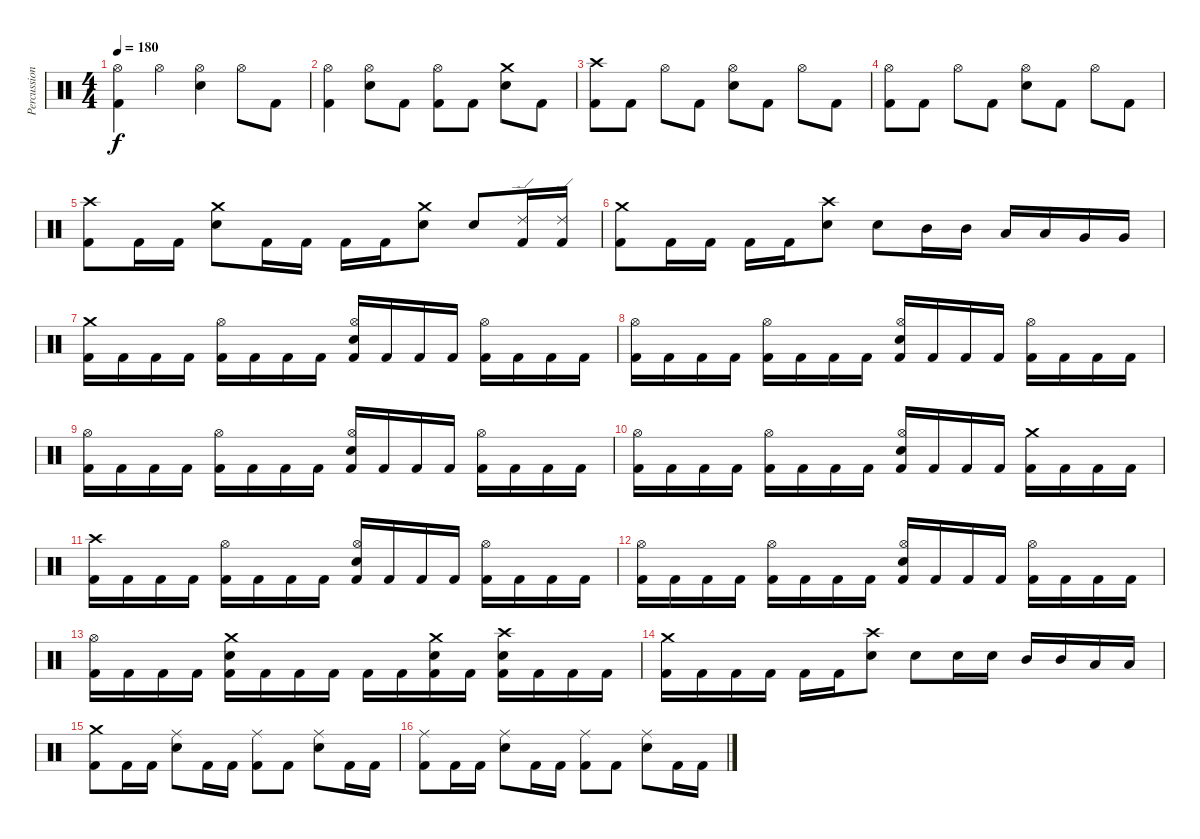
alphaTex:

\track ("Percussion" "Percussion") {instrument percussion}
\staff {score}
\articulation defaults
\ts (4 4)
\tempo 180
\clef neutral
\ks c
("Kick (hit) 2" "Hi-Hat (open)").4{dy f} "Hi-Hat (open)".4 ("Electric Snare (hit)" "Hi-Hat (open)").4 "Hi-Hat (open)".8 "Kick (hit) 2".8 |
("Kick (hit) 2" "Hi-Hat (open)").4 ("Electric Snare (hit)" "Hi-Hat (open)").8 "Kick (hit) 2".8 ("Kick (hit) 2" "Hi-Hat (open)").8 "Kick (hit) 2".8 ("Electric Snare (hit)" "Crash medium (hit)").8 "Kick (hit) 2".8 |
("Kick (hit) 2" "Crash high (hit)").8 "Kick (hit) 2".8 "Hi-Hat (open)".8 "Kick (hit) 2".8 ("Electric Snare (hit)" "Hi-Hat (open)").8 "Kick (hit) 2".8 "Hi-Hat (open)".8 "Kick (hit) 2".8 |
("Kick (hit) 2" "Hi-Hat (open)").8 "Kick (hit) 2".8 "Hi-Hat (open)".8 "Kick (hit) 2".8 ("Electric Snare (hit)" "Hi-Hat (open)").8 "Kick (hit) 2".8 "Hi-Hat (open)".8 "Kick (hit) 2".8 |
("Kick (hit) 2" "Crash high (hit)").8 "Kick (hit) 2".16 "Kick (hit) 2".16 ("Electric Snare (hit)" "Crash medium (hit)").8 "Kick (hit) 2".16 "Kick (hit) 2".16 "Kick (hit) 2".16 "Kick (hit) 2".16 ("Electric Snare (hit)" "Crash medium (hit)").8 "Electric Snare (hit)".8 ("Kick (hit) 2" "Ride (edge) 2").16 ("Kick (hit) 2" "Ride (edge) 2").16 |
("Kick (hit) 2" "Crash medium (hit)").8 "Kick (hit) 2".16 "Kick (hit) 2".16 "Kick (hit) 2".16 "Kick (hit) 2".16 ("Electric Snare (hit)" "Crash high (hit)").8 "Electric Snare (hit)".8 "Mid Tom (hit)".16 "Mid Tom (hit)".16 "Low Tom (hit)".16 "Low Tom (hit)".16 "Very Low Tom (hit)".16 "Very Low Tom (hit)".16 |
("Kick (hit) 2" "Crash medium (hit)").16 "Kick (hit) 2".16 "Kick (hit) 2".16 "Kick (hit) 2".16 ("Kick (hit) 2" "Hi-Hat (open)").16 "Kick (hit) 2".16 "Kick (hit) 2".16 "Kick (hit) 2".16 ("Kick (hit) 2" "Electric Snare (hit)" "Hi-Hat (open)").16 "Kick (hit) 2".16 "Kick (hit) 2".16 "Kick (hit) 2".16 ("Kick (hit) 2" "Hi-Hat (open)").16 "Kick (hit) 2".16 "Kick (hit) 2".16 "Kick (hit) 2".16 |
("Kick (hit) 2" "Hi-Hat (open)").16 "Kick (hit) 2".16 "Kick (hit) 2".16 "Kick (hit) 2".16 ("Kick (hit) 2" "Hi-Hat (open)").16 "Kick (hit) 2".16 "Kick (hit) 2".16 "Kick (hit) 2".16 ("Kick (hit) 2" "Electric Snare (hit)" "Hi-Hat (open)").16 "Kick (hit) 2".16 "Kick (hit) 2".16 "Kick (hit) 2".16 ("Kick (hit) 2" "Hi-Hat (open)").16 "Kick (hit) 2".16 "Kick (hit) 2".16 "Kick (hit) 2".16 |
("Kick (hit) 2" "Hi-Hat (open)").16 "Kick (hit) 2".16 "Kick (hit) 2".16 "Kick (hit) 2".16 ("Kick (hit) 2" "Hi-Hat (open)").16 "Kick (hit) 2".16 "Kick (hit) 2".16 "Kick (hit) 2".16 ("Kick (hit) 2" "Electric Snare (hit)" "Hi-Hat (open)").16 "Kick (hit) 2".16 "Kick (hit) 2".16 "Kick (hit) 2".16 ("Kick (hit) 2" "Hi-Hat (open)").16 "Kick (hit) 2".16 "Kick (hit) 2".16 "Kick (hit) 2".16 |
("Kick (hit) 2" "Hi-Hat (open)").16 "Kick (hit) 2".16 "Kick (hit) 2".16 "Kick (hit) 2".16 ("Kick (hit) 2" "Hi-Hat (open)").16 "Kick (hit) 2".16 "Kick (hit) 2".16 "Kick (hit) 2".16 ("Kick (hit) 2" "Electric Snare (hit)" "Hi-Hat (open)").16 "Kick (hit) 2".16 "Kick (hit) 2".16 "Kick (hit) 2".16 ("Kick (hit) 2" "Crash medium (hit)").16 "Kick (hit) 2".16 "Kick (hit) 2".16 "Kick (hit) 2".16 |
("Kick (hit) 2" "Crash high (hit)").16 "Kick (hit) 2".16 "Kick (hit) 2".16 "Kick (hit) 2".16 ("Kick (hit) 2" "Hi-Hat (open)").16 "Kick (hit) 2".16 "Kick (hit) 2".16 "Kick (hit) 2".16 ("Kick (hit) 2" "Electric Snare (hit)" "Hi-Hat (open)").16 "Kick (hit) 2".16 "Kick (hit) 2".16 "Kick (hit) 2".16 ("Kick (hit) 2" "Hi-Hat (open)").16 "Kick (hit) 2".16 "Kick (hit) 2".16 "Kick (hit) 2".16 |
("Kick (hit) 2" "Hi-Hat (open)").16 "Kick (hit) 2".16 "Kick (hit) 2".16 "Kick (hit) 2".16 ("Kick (hit) 2" "Hi-Hat (open)").16 "Kick (hit) 2".16 "Kick (hit) 2".16 "Kick (hit) 2".16 ("Kick (hit) 2" "Electric Snare (hit)" "Hi-Hat (open)").16 "Kick (hit) 2".16 "Kick (hit) 2".16 "Kick (hit) 2".16 ("Kick (hit) 2" "Hi-Hat (open)").16 "Kick (hit) 2".16 "Kick (hit) 2".16 "Kick (hit) 2".16 |
("Kick (hit) 2" "Hi-Hat (open)").16 "Kick (hit) 2".16 "Kick (hit) 2".16 "Kick (hit) 2".16 ("Kick (hit) 2" "Electric Snare (hit)" "Crash medium (hit)").16 "Kick (hit) 2".16 "Kick (hit) 2".16 "Kick (hit) 2".16 "Kick (hit) 2".16 "Kick (hit) 2".16 ("Kick (hit) 2" "Electric Snare (hit)" "Crash medium (hit)").16 "Kick (hit) 2".16 ("Kick (hit) 2" "Electric Snare (hit)" "Crash high (hit)").16 "Kick (hit) 2".16 "Kick (hit) 2".16 "Kick (hit) 2".16 |
("Kick (hit) 2" "Crash medium (hit)").16 "Kick (hit) 2".16 "Kick (hit) 2".16 "Kick (hit) 2".16 "Kick (hit) 2".16 "Kick (hit) 2".16 ("Electric Snare (hit)" "Crash high (hit)").8 "Electric Snare (hit)".8 "Electric Snare (hit)".16 "Electric Snare (hit)".16 "Mid Tom (hit)".16 "Mid Tom (hit)".16 "Low Tom (hit)".16 "Low Tom (hit)".16 |
("Kick (hit) 2" "Crash medium (hit)").8 "Kick (hit) 2".16 "Kick (hit) 2".16 ("Electric Snare (hit)" "Ride (middle)").8 "Kick (hit) 2".16 "Kick (hit) 2".16 ("Kick (hit) 2" "Ride (middle)").8 "Kick (hit) 2".8 ("Electric Snare (hit)" "Ride (middle)").8 "Kick (hit) 2".16 "Kick (hit) 2".16 |
("Kick (hit) 2" "Ride (middle)").8 "Kick (hit) 2".16 "Kick (hit) 2".16 ("Electric Snare (hit)" "Ride (middle)").8 "Kick (hit) 2".16 "Kick (hit) 2".16 ("Kick (hit) 2" "Ride (middle)").8 "Kick (hit) 2".8 ("Electric Snare (hit)" "Ride (middle)").8 "Kick (hit) 2".16 "Kick (hit) 2".16
